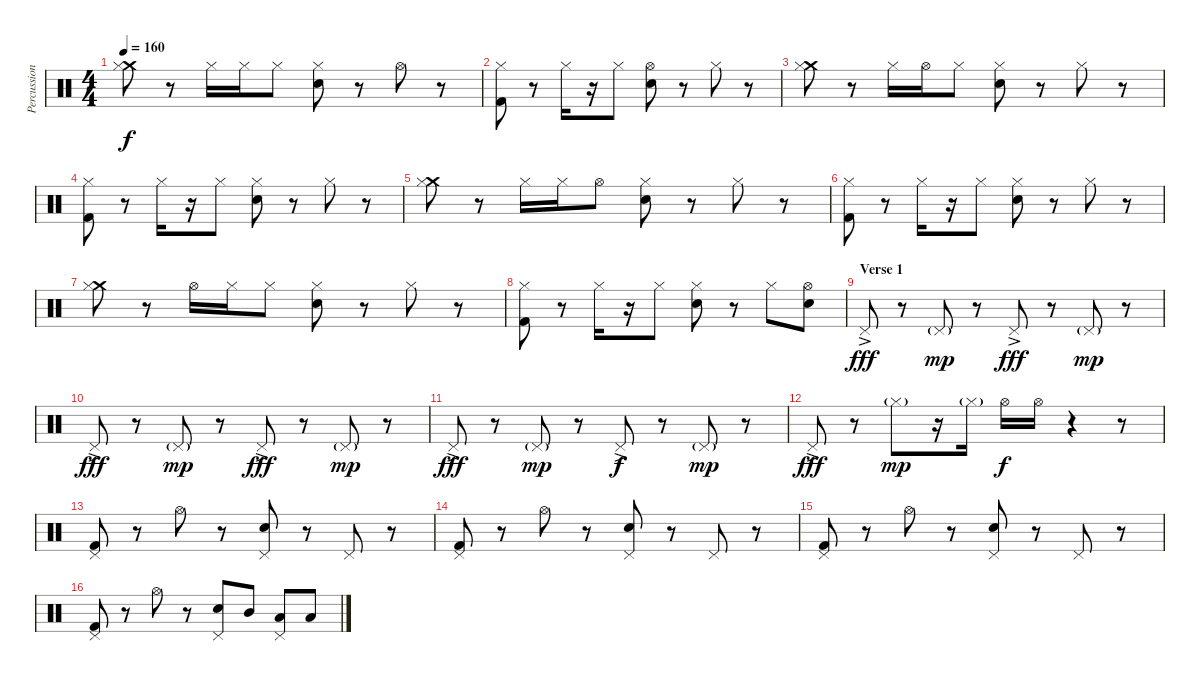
\track ("Percussion" "Percussion") {instrument percussion}
\staff {score}
\articulation defaults
\ts (4 4)
\tempo 160
\clef neutral
\ks c
("Crash medium (hit)" "Hi-Hat (closed)").8{dy f} r.8 "Hi-Hat (closed)".16 "Hi-Hat (closed)".16 "Hi-Hat (closed)".8 ("Electric Snare (hit)" "Hi-Hat (closed)").8 r.8 "Hi-Hat (open)".8 r.8 |
("Hi-Hat (closed)" "Kick (hit) 2").8 r.8 "Hi-Hat (closed)".16 r.16 "Hi-Hat (closed)".8 ("Electric Snare (hit)" "Hi-Hat (open)").8 r.8 "Hi-Hat (closed)".8 r.8 |
("Crash medium (hit)" "Hi-Hat (closed)").8 r.8 "Hi-Hat (closed)".16 "Hi-Hat (open)".16 "Hi-Hat (closed)".8 ("Electric Snare (hit)" "Hi-Hat (closed)").8 r.8 "Hi-Hat (closed)".8 r.8 |
("Hi-Hat (closed)" "Kick (hit) 2").8 r.8 "Hi-Hat (closed)".16 r.16 "Hi-Hat (closed)".8 ("Electric Snare (hit)" "Hi-Hat (closed)").8 r.8 "Hi-Hat (closed)".8 r.8 |
("Crash medium (hit)" "Hi-Hat (closed)").8 r.8 "Hi-Hat (closed)".16 "Hi-Hat (closed)".16 "Hi-Hat (open)".8 ("Electric Snare (hit)" "Hi-Hat (closed)").8 r.8 "Hi-Hat (closed)".8 r.8 |
("Hi-Hat (closed)" "Kick (hit) 2").8 r.8 "Hi-Hat (closed)".16 r.16 "Hi-Hat (closed)".8 ("Electric Snare (hit)" "Hi-Hat (closed)").8 r.8 "Hi-Hat (closed)".8 r.8 |
("Crash medium (hit)" "Hi-Hat (closed)").8 r.8 "Hi-Hat (open)".16 "Hi-Hat (closed)".16 "Hi-Hat (closed)".8 ("Electric Snare (hit)" "Hi-Hat (closed)").8 r.8 "Hi-Hat (closed)".8 r.8 |
("Hi-Hat (closed)" "Kick (hit) 2").8 r.8 "Hi-Hat (closed)".16 r.16 "Hi-Hat (closed)".8 ("Electric Snare (hit)" "Hi-Hat (closed)").8 r.8 "Hi-Hat (closed)".8 ("Hi-Hat (open)" "Electric Snare (hit)").8 |
\section ("" "Verse 1")
"Pedal Hi-Hat (hit)"{ac}.8{dy fff} r.8 "Pedal Hi-Hat (hit)"{g}.8{dy mp} r.8 "Pedal Hi-Hat (hit)"{ac}.8{dy fff} r.8 "Pedal Hi-Hat (hit)"{g}.8{dy mp} r.8 |
"Pedal Hi-Hat (hit)"{ac}.8{dy fff} r.8 "Pedal Hi-Hat (hit)"{g}.8{dy mp} r.8 "Pedal Hi-Hat (hit)"{ac}.8{dy fff} r.8 "Pedal Hi-Hat (hit)"{g}.8{dy mp} r.8 |
"Pedal Hi-Hat (hit)"{ac}.8{dy fff} r.8 "Pedal Hi-Hat (hit)"{g}.8{dy mp} r.8 "Pedal Hi-Hat (hit)"{ac}.8{dy f} r.8 "Pedal Hi-Hat (hit)"{g}.8{dy mp} r.8 |
"Pedal Hi-Hat (hit)"{ac}.8{dy fff} r.8 "Hi-Hat (closed)"{g}.8{dy mp} r.16 "Hi-Hat (closed)"{g}.16 "Hi-Hat (open)".16{dy f} "Hi-Hat (open)".16 r.4 r.8 |
("Pedal Hi-Hat (hit)" "Kick (hit) 2").8 r.8 "Hi-Hat (open)".8 r.8 ("Pedal Hi-Hat (hit)" "Electric Snare (hit)").8 r.8 "Pedal Hi-Hat (hit)".8 r.8 |
("Pedal Hi-Hat (hit)" "Kick (hit) 2").8 r.8 "Hi-Hat (open)".8 r.8 ("Pedal Hi-Hat (hit)" "Electric Snare (hit)").8 r.8 "Pedal Hi-Hat (hit)".8 r.8 |
("Pedal Hi-Hat (hit)" "Kick (hit) 2").8 r.8 "Hi-Hat (open)".8 r.8 ("Pedal Hi-Hat (hit)" "Electric Snare (hit)").8 r.8 "Pedal Hi-Hat (hit)".8 r.8 |
("Pedal Hi-Hat (hit)" "Kick (hit) 2").8 r.8 "Hi-Hat (open)".8 r.8 ("Pedal Hi-Hat (hit)" "Electric Snare (hit)").8 "Mid Tom (hit)".8 ("Low Tom (hit)" "Pedal Hi-Hat (hit)").8 "Low Floor Tom (hit)".8
